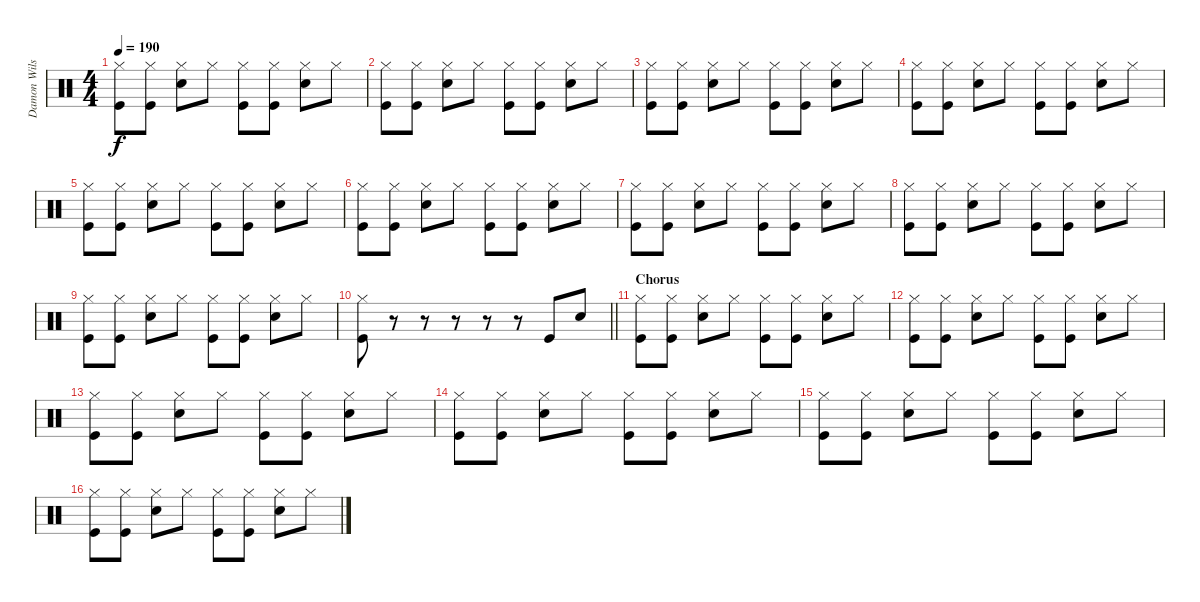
\track ("Damon Wilson" "Damon Wils") {instrument percussion}
\staff {score}
\articulation defaults
\ts (4 4)
\tempo 190
\clef neutral
\ks c
("Hi-Hat (closed)" "Kick (hit)").8{dy f} ("Hi-Hat (closed)" "Kick (hit)").8 ("Hi-Hat (closed)" "Snare (hit) 2").8 "Hi-Hat (closed)".8 ("Hi-Hat (closed)" "Kick (hit)").8 ("Hi-Hat (closed)" "Kick (hit)").8 ("Hi-Hat (closed)" "Snare (hit) 2").8 "Hi-Hat (closed)".8 |
("Hi-Hat (closed)" "Kick (hit)").8 ("Hi-Hat (closed)" "Kick (hit)").8 ("Hi-Hat (closed)" "Snare (hit) 2").8 "Hi-Hat (closed)".8 ("Hi-Hat (closed)" "Kick (hit)").8 ("Hi-Hat (closed)" "Kick (hit)").8 ("Hi-Hat (closed)" "Snare (hit) 2").8 "Hi-Hat (closed)".8 |
("Hi-Hat (closed)" "Kick (hit)").8 ("Hi-Hat (closed)" "Kick (hit)").8 ("Hi-Hat (closed)" "Snare (hit) 2").8 "Hi-Hat (closed)".8 ("Hi-Hat (closed)" "Kick (hit)").8 ("Hi-Hat (closed)" "Kick (hit)").8 ("Hi-Hat (closed)" "Snare (hit) 2").8 "Hi-Hat (closed)".8 |
("Hi-Hat (closed)" "Kick (hit)").8 ("Hi-Hat (closed)" "Kick (hit)").8 ("Hi-Hat (closed)" "Snare (hit) 2").8 "Hi-Hat (closed)".8 ("Hi-Hat (closed)" "Kick (hit)").8 ("Hi-Hat (closed)" "Kick (hit)").8 ("Hi-Hat (closed)" "Snare (hit) 2").8 "Hi-Hat (closed)".8 |
("Hi-Hat (closed)" "Kick (hit)").8 ("Hi-Hat (closed)" "Kick (hit)").8 ("Hi-Hat (closed)" "Snare (hit) 2").8 "Hi-Hat (closed)".8 ("Hi-Hat (closed)" "Kick (hit)").8 ("Hi-Hat (closed)" "Kick (hit)").8 ("Hi-Hat (closed)" "Snare (hit) 2").8 "Hi-Hat (closed)".8 |
("Hi-Hat (closed)" "Kick (hit)").8 ("Hi-Hat (closed)" "Kick (hit)").8 ("Hi-Hat (closed)" "Snare (hit) 2").8 "Hi-Hat (closed)".8 ("Hi-Hat (closed)" "Kick (hit)").8 ("Hi-Hat (closed)" "Kick (hit)").8 ("Hi-Hat (closed)" "Snare (hit) 2").8 "Hi-Hat (closed)".8 |
("Hi-Hat (closed)" "Kick (hit)").8 ("Hi-Hat (closed)" "Kick (hit)").8 ("Hi-Hat (closed)" "Snare (hit) 2").8 "Hi-Hat (closed)".8 ("Hi-Hat (closed)" "Kick (hit)").8 ("Hi-Hat (closed)" "Kick (hit)").8 ("Hi-Hat (closed)" "Snare (hit) 2").8 "Hi-Hat (closed)".8 |
("Hi-Hat (closed)" "Kick (hit)").8 ("Hi-Hat (closed)" "Kick (hit)").8 ("Hi-Hat (closed)" "Snare (hit) 2").8 "Hi-Hat (closed)".8 ("Hi-Hat (closed)" "Kick (hit)").8 ("Hi-Hat (closed)" "Kick (hit)").8 ("Hi-Hat (closed)" "Snare (hit) 2").8 "Hi-Hat (closed)".8 |
("Hi-Hat (closed)" "Kick (hit)").8 ("Hi-Hat (closed)" "Kick (hit)").8 ("Hi-Hat (closed)" "Snare (hit) 2").8 "Hi-Hat (closed)".8 ("Hi-Hat (closed)" "Kick (hit)").8 ("Hi-Hat (closed)" "Kick (hit)").8 ("Hi-Hat (closed)" "Snare (hit) 2").8 "Hi-Hat (closed)".8 |
\barLineRight lightlight
("Hi-Hat (closed)" "Kick (hit)").8 r.8 r.8 r.8 r.8 r.8 "Kick (hit)".8 "Snare (hit) 2".8 |
\section ("" "Chorus")
("Hi-Hat (closed)" "Kick (hit)").8 ("Hi-Hat (closed)" "Kick (hit)").8 ("Hi-Hat (closed)" "Snare (hit) 2").8 "Hi-Hat (closed)".8 ("Hi-Hat (closed)" "Kick (hit)").8 ("Hi-Hat (closed)" "Kick (hit)").8 ("Hi-Hat (closed)" "Snare (hit) 2").8 "Hi-Hat (closed)".8 |
("Hi-Hat (closed)" "Kick (hit)").8 ("Hi-Hat (closed)" "Kick (hit)").8 ("Hi-Hat (closed)" "Snare (hit) 2").8 "Hi-Hat (closed)".8 ("Hi-Hat (closed)" "Kick (hit)").8 ("Hi-Hat (closed)" "Kick (hit)").8 ("Hi-Hat (closed)" "Snare (hit) 2").8 "Hi-Hat (closed)".8 |
("Hi-Hat (closed)" "Kick (hit)").8 ("Hi-Hat (closed)" "Kick (hit)").8 ("Hi-Hat (closed)" "Snare (hit) 2").8 "Hi-Hat (closed)".8 ("Hi-Hat (closed)" "Kick (hit)").8 ("Hi-Hat (closed)" "Kick (hit)").8 ("Hi-Hat (closed)" "Snare (hit) 2").8 "Hi-Hat (closed)".8 |
("Hi-Hat (closed)" "Kick (hit)").8 ("Hi-Hat (closed)" "Kick (hit)").8 ("Hi-Hat (closed)" "Snare (hit) 2").8 "Hi-Hat (closed)".8 ("Hi-Hat (closed)" "Kick (hit)").8 ("Hi-Hat (closed)" "Kick (hit)").8 ("Hi-Hat (closed)" "Snare (hit) 2").8 "Hi-Hat (closed)".8 |
("Hi-Hat (closed)" "Kick (hit)").8 ("Hi-Hat (closed)" "Kick (hit)").8 ("Hi-Hat (closed)" "Snare (hit) 2").8 "Hi-Hat (closed)".8 ("Hi-Hat (closed)" "Kick (hit)").8 ("Hi-Hat (closed)" "Kick (hit)").8 ("Hi-Hat (closed)" "Snare (hit) 2").8 "Hi-Hat (closed)".8 |
("Hi-Hat (closed)" "Kick (hit)").8 ("Hi-Hat (closed)" "Kick (hit)").8 ("Hi-Hat (closed)" "Snare (hit) 2").8 "Hi-Hat (closed)".8 ("Hi-Hat (closed)" "Kick (hit)").8 ("Hi-Hat (closed)" "Kick (hit)").8 ("Hi-Hat (closed)" "Snare (hit) 2").8 "Hi-Hat (closed)".8
